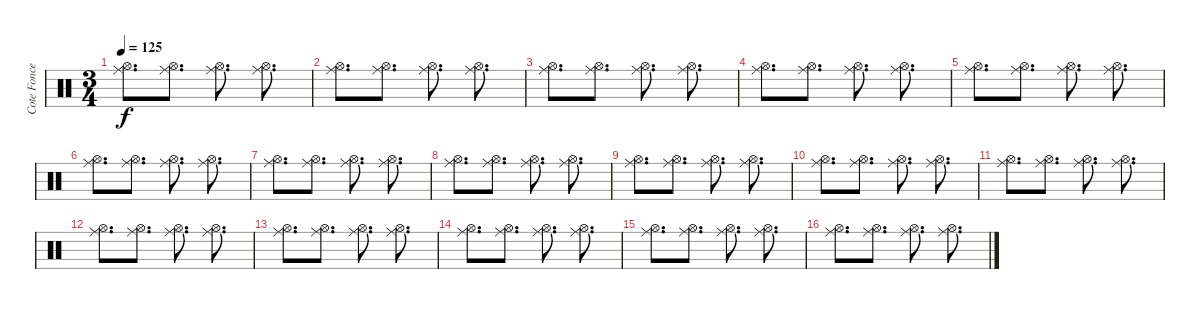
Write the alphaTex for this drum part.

\track ("Cote Foncea" "Cote Fonce") {instrument percussion}
\staff {score}
\articulation defaults
\ts (3 4)
\tempo 125
\clef neutral
\ks c
("Ride (middle)" "Hi-Hat (open)").8{d dy f} ("Ride (middle)" "Hi-Hat (open)").8{d} ("Ride (middle)" "Hi-Hat (open)").8{d} ("Ride (middle)" "Hi-Hat (open)").8{d} |
("Ride (middle)" "Hi-Hat (open)").8{d} ("Ride (middle)" "Hi-Hat (open)").8{d} ("Ride (middle)" "Hi-Hat (open)").8{d} ("Ride (middle)" "Hi-Hat (open)").8{d} |
("Ride (middle)" "Hi-Hat (open)").8{d} ("Ride (middle)" "Hi-Hat (open)").8{d} ("Ride (middle)" "Hi-Hat (open)").8{d} ("Ride (middle)" "Hi-Hat (open)").8{d} |
("Ride (middle)" "Hi-Hat (open)").8{d} ("Ride (middle)" "Hi-Hat (open)").8{d} ("Ride (middle)" "Hi-Hat (open)").8{d} ("Ride (middle)" "Hi-Hat (open)").8{d} |
("Ride (middle)" "Hi-Hat (open)").8{d} ("Ride (middle)" "Hi-Hat (open)").8{d} ("Ride (middle)" "Hi-Hat (open)").8{d} ("Ride (middle)" "Hi-Hat (open)").8{d} |
("Ride (middle)" "Hi-Hat (open)").8{d} ("Ride (middle)" "Hi-Hat (open)").8{d} ("Ride (middle)" "Hi-Hat (open)").8{d} ("Ride (middle)" "Hi-Hat (open)").8{d} |
("Ride (middle)" "Hi-Hat (open)").8{d} ("Ride (middle)" "Hi-Hat (open)").8{d} ("Ride (middle)" "Hi-Hat (open)").8{d} ("Ride (middle)" "Hi-Hat (open)").8{d} |
("Ride (middle)" "Hi-Hat (open)").8{d} ("Ride (middle)" "Hi-Hat (open)").8{d} ("Ride (middle)" "Hi-Hat (open)").8{d} ("Ride (middle)" "Hi-Hat (open)").8{d} |
("Ride (middle)" "Hi-Hat (open)").8{d} ("Ride (middle)" "Hi-Hat (open)").8{d} ("Ride (middle)" "Hi-Hat (open)").8{d} ("Ride (middle)" "Hi-Hat (open)").8{d} |
("Ride (middle)" "Hi-Hat (open)").8{d} ("Ride (middle)" "Hi-Hat (open)").8{d} ("Ride (middle)" "Hi-Hat (open)").8{d} ("Ride (middle)" "Hi-Hat (open)").8{d} |
("Ride (middle)" "Hi-Hat (open)").8{d} ("Ride (middle)" "Hi-Hat (open)").8{d} ("Ride (middle)" "Hi-Hat (open)").8{d} ("Ride (middle)" "Hi-Hat (open)").8{d} |
("Ride (middle)" "Hi-Hat (open)").8{d} ("Ride (middle)" "Hi-Hat (open)").8{d} ("Ride (middle)" "Hi-Hat (open)").8{d} ("Ride (middle)" "Hi-Hat (open)").8{d} |
("Ride (middle)" "Hi-Hat (open)").8{d} ("Ride (middle)" "Hi-Hat (open)").8{d} ("Ride (middle)" "Hi-Hat (open)").8{d} ("Ride (middle)" "Hi-Hat (open)").8{d} |
("Ride (middle)" "Hi-Hat (open)").8{d} ("Ride (middle)" "Hi-Hat (open)").8{d} ("Ride (middle)" "Hi-Hat (open)").8{d} ("Ride (middle)" "Hi-Hat (open)").8{d} |
("Ride (middle)" "Hi-Hat (open)").8{d} ("Ride (middle)" "Hi-Hat (open)").8{d} ("Ride (middle)" "Hi-Hat (open)").8{d} ("Ride (middle)" "Hi-Hat (open)").8{d} |
("Ride (middle)" "Hi-Hat (open)").8{d} ("Ride (middle)" "Hi-Hat (open)").8{d} ("Ride (middle)" "Hi-Hat (open)").8{d} ("Ride (middle)" "Hi-Hat (open)").8{d}
